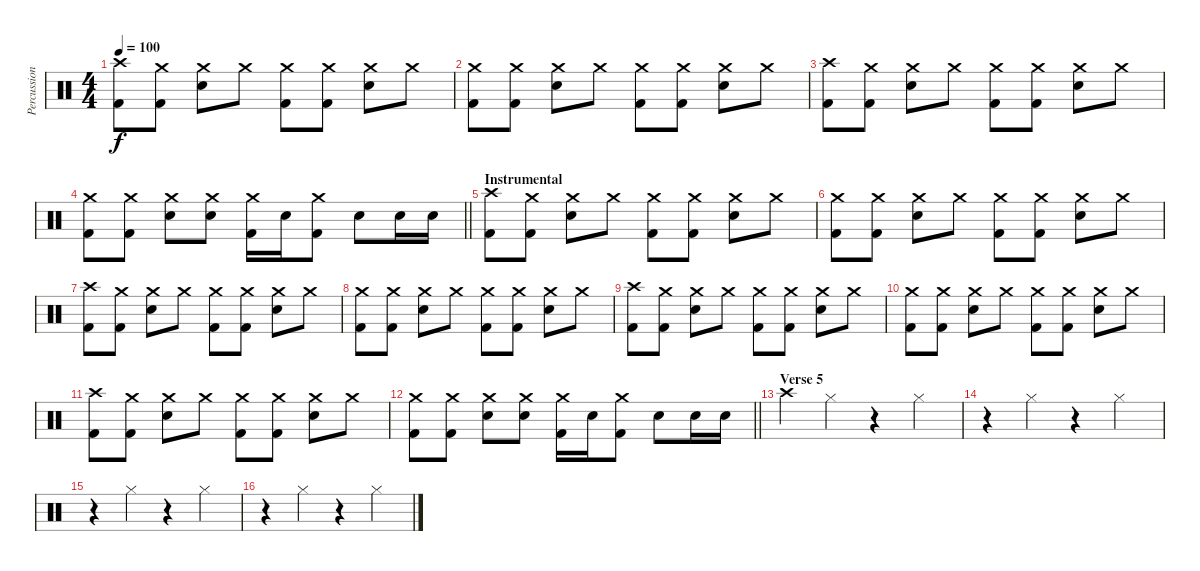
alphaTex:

\track ("Percussion" "Percussion") {instrument percussion}
\staff {score}
\articulation defaults
\ts (4 4)
\tempo 100
\clef neutral
\ks c
("Kick (hit) 2" "Crash high (hit)").8{dy f} ("Kick (hit) 2" "Crash medium (hit)").8 ("Snare (hit) 2" "Crash medium (hit)").8 "Crash medium (hit)".8 ("Kick (hit) 2" "Crash medium (hit)").8 ("Kick (hit) 2" "Crash medium (hit)").8 ("Snare (hit) 2" "Crash medium (hit)").8 "Crash medium (hit)".8 |
("Kick (hit) 2" "Crash medium (hit)").8 ("Kick (hit) 2" "Crash medium (hit)").8 ("Snare (hit) 2" "Crash medium (hit)").8 "Crash medium (hit)".8 ("Kick (hit) 2" "Crash medium (hit)").8 ("Kick (hit) 2" "Crash medium (hit)").8 ("Snare (hit) 2" "Crash medium (hit)").8 "Crash medium (hit)".8 |
("Kick (hit) 2" "Crash high (hit)").8 ("Kick (hit) 2" "Crash medium (hit)").8 ("Snare (hit) 2" "Crash medium (hit)").8 "Crash medium (hit)".8 ("Kick (hit) 2" "Crash medium (hit)").8 ("Kick (hit) 2" "Crash medium (hit)").8 ("Snare (hit) 2" "Crash medium (hit)").8 "Crash medium (hit)".8 |
\barLineRight lightlight
("Kick (hit) 2" "Crash medium (hit)").8 ("Kick (hit) 2" "Crash medium (hit)").8 ("Snare (hit) 2" "Crash medium (hit)").8 ("Snare (hit) 2" "Crash medium (hit)").8 ("Kick (hit) 2" "Crash medium (hit)").16 "Snare (hit) 2".16 ("Kick (hit) 2" "Crash medium (hit)").8 "Snare (hit) 2".8 "Snare (hit) 2".16 "Snare (hit) 2".16 |
\section ("" "Instrumental")
("Kick (hit) 2" "Crash high (hit)").8 ("Kick (hit) 2" "Crash medium (hit)").8 ("Snare (hit) 2" "Crash medium (hit)").8 "Crash medium (hit)".8 ("Kick (hit) 2" "Crash medium (hit)").8 ("Kick (hit) 2" "Crash medium (hit)").8 ("Snare (hit) 2" "Crash medium (hit)").8 "Crash medium (hit)".8 |
("Kick (hit) 2" "Crash medium (hit)").8 ("Kick (hit) 2" "Crash medium (hit)").8 ("Snare (hit) 2" "Crash medium (hit)").8 "Crash medium (hit)".8 ("Kick (hit) 2" "Crash medium (hit)").8 ("Kick (hit) 2" "Crash medium (hit)").8 ("Snare (hit) 2" "Crash medium (hit)").8 "Crash medium (hit)".8 |
("Kick (hit) 2" "Crash high (hit)").8 ("Kick (hit) 2" "Crash medium (hit)").8 ("Snare (hit) 2" "Crash medium (hit)").8 "Crash medium (hit)".8 ("Kick (hit) 2" "Crash medium (hit)").8 ("Kick (hit) 2" "Crash medium (hit)").8 ("Snare (hit) 2" "Crash medium (hit)").8 "Crash medium (hit)".8 |
("Kick (hit) 2" "Crash medium (hit)").8 ("Kick (hit) 2" "Crash medium (hit)").8 ("Snare (hit) 2" "Crash medium (hit)").8 "Crash medium (hit)".8 ("Kick (hit) 2" "Crash medium (hit)").8 ("Kick (hit) 2" "Crash medium (hit)").8 ("Snare (hit) 2" "Crash medium (hit)").8 "Crash medium (hit)".8 |
("Kick (hit) 2" "Crash high (hit)").8 ("Kick (hit) 2" "Crash medium (hit)").8 ("Snare (hit) 2" "Crash medium (hit)").8 "Crash medium (hit)".8 ("Kick (hit) 2" "Crash medium (hit)").8 ("Kick (hit) 2" "Crash medium (hit)").8 ("Snare (hit) 2" "Crash medium (hit)").8 "Crash medium (hit)".8 |
("Kick (hit) 2" "Crash medium (hit)").8 ("Kick (hit) 2" "Crash medium (hit)").8 ("Snare (hit) 2" "Crash medium (hit)").8 "Crash medium (hit)".8 ("Kick (hit) 2" "Crash medium (hit)").8 ("Kick (hit) 2" "Crash medium (hit)").8 ("Snare (hit) 2" "Crash medium (hit)").8 "Crash medium (hit)".8 |
("Kick (hit) 2" "Crash high (hit)").8 ("Kick (hit) 2" "Crash medium (hit)").8 ("Snare (hit) 2" "Crash medium (hit)").8 "Crash medium (hit)".8 ("Kick (hit) 2" "Crash medium (hit)").8 ("Kick (hit) 2" "Crash medium (hit)").8 ("Snare (hit) 2" "Crash medium (hit)").8 "Crash medium (hit)".8 |
\barLineRight lightlight
("Kick (hit) 2" "Crash medium (hit)").8 ("Kick (hit) 2" "Crash medium (hit)").8 ("Snare (hit) 2" "Crash medium (hit)").8 ("Snare (hit) 2" "Crash medium (hit)").8 ("Kick (hit) 2" "Crash medium (hit)").16 "Snare (hit) 2".16 ("Kick (hit) 2" "Crash medium (hit)").8 "Snare (hit) 2".8 "Snare (hit) 2".16 "Snare (hit) 2".16 |
\section ("" "Verse 5")
"Crash high (hit)".4 "Hi-Hat (closed)".4 r.4 "Hi-Hat (closed)".4 |
r.4 "Hi-Hat (closed)".4 r.4 "Hi-Hat (closed)".4 |
r.4 "Hi-Hat (closed)".4 r.4 "Hi-Hat (closed)".4 |
r.4 "Hi-Hat (closed)".4 r.4 "Hi-Hat (closed)".4
